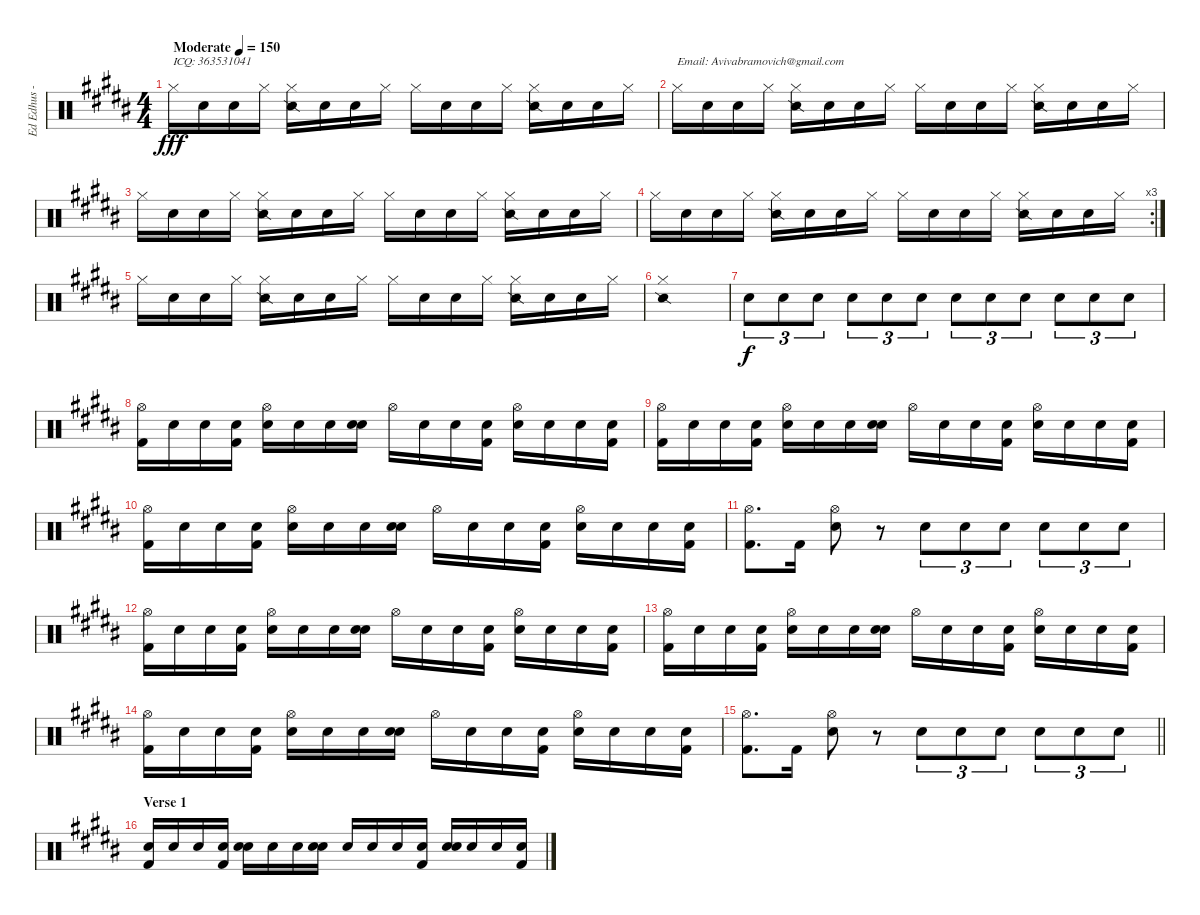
\track ("Ed Edhus - Drums" "Ed Edhus -") {instrument percussion bank 127}
\staff {score}
\articulation defaults
\ts (4 4)
\tempo (150 "Moderate")
\clef neutral
\ks g#minor "Hi-Hat (closed)".16{txt "ICQ: 363531041" dy fff} "Snare (hit)".16 "Snare (hit)".16 "Hi-Hat (closed)".16
("Hi-Hat (closed)" "Snare (side stick) 2").16 "Snare (hit)".16 "Snare (hit)".16 "Hi-Hat (closed)".16 "Hi-Hat (closed)".16 "Snare (hit)".16 "Snare (hit)".16 "Hi-Hat (closed)".16 ("Hi-Hat (closed)" "Snare (side stick) 2").16 "Snare (hit)".16 "Snare (hit)".16 "Hi-Hat (closed)".16 |
"Hi-Hat (closed)".16{txt "Email: Avivabramovich@gmail.com"} "Snare (hit)".16 "Snare (hit)".16 "Hi-Hat (closed)".16 ("Hi-Hat (closed)" "Snare (side stick) 2").16 "Snare (hit)".16 "Snare (hit)".16 "Hi-Hat (closed)".16 "Hi-Hat (closed)".16 "Snare (hit)".16 "Snare (hit)".16 "Hi-Hat (closed)".16 ("Hi-Hat (closed)" "Snare (side stick) 2").16 "Snare (hit)".16 "Snare (hit)".16 "Hi-Hat (closed)".16 |
"Hi-Hat (closed)".16 "Snare (hit)".16 "Snare (hit)".16 "Hi-Hat (closed)".16 ("Hi-Hat (closed)" "Snare (side stick) 2").16 "Snare (hit)".16 "Snare (hit)".16 "Hi-Hat (closed)".16 "Hi-Hat (closed)".16 "Snare (hit)".16 "Snare (hit)".16 "Hi-Hat (closed)".16 ("Hi-Hat (closed)" "Snare (side stick) 2").16 "Snare (hit)".16 "Snare (hit)".16 "Hi-Hat (closed)".16 |
\rc 3 "Hi-Hat (closed)".16 "Snare (hit)".16 "Snare (hit)".16 "Hi-Hat (closed)".16
("Hi-Hat (closed)" "Snare (side stick) 2").16 "Snare (hit)".16 "Snare (hit)".16 "Hi-Hat (closed)".16 "Hi-Hat (closed)".16 "Snare (hit)".16 "Snare (hit)".16 "Hi-Hat (closed)".16 ("Hi-Hat (closed)" "Snare (side stick) 2").16 "Snare (hit)".16 "Snare (hit)".16 "Hi-Hat (closed)".16 |
"Hi-Hat (closed)".16 "Snare (hit)".16 "Snare (hit)".16 "Hi-Hat (closed)".16 ("Hi-Hat (closed)" "Snare (side stick) 2").16 "Snare (hit)".16 "Snare (hit)".16 "Hi-Hat (closed)".16 "Hi-Hat (closed)".16 "Snare (hit)".16 "Snare (hit)".16 "Hi-Hat (closed)".16 ("Hi-Hat (closed)" "Snare (side stick) 2").16 "Snare (hit)".16 "Snare (hit)".16 "Hi-Hat (closed)".16 |
("Hi-Hat (closed)" "Snare (side stick) 2").1 |
"Snare (hit) 2".8{tu (3 2) dy f} "Snare (hit) 2".8{tu (3 2)} "Snare (hit) 2".8{tu (3 2)} "Snare (hit) 2".8{tu (3 2)} "Snare (hit) 2".8{tu (3 2)} "Snare (hit) 2".8{tu (3 2)} "Snare (hit) 2".8{tu (3 2)} "Snare (hit) 2".8{tu (3 2)} "Snare (hit) 2".8{tu (3 2)} "Snare (hit) 2".8{tu (3 2)} "Snare (hit) 2".8{tu (3 2)} "Snare (hit) 2".8{tu (3 2)} |
("Hi-Hat (open)" "Kick (hit) 2").16 "Snare (hit)".16 "Snare (hit)".16 ("Snare (hit)" "Kick (hit) 2").16 ("Hi-Hat (open)" "Snare (hit) 2").16 "Snare (hit)".16 "Snare (hit)".16 ("Snare (hit)" "Snare (hit) 2").16 "Hi-Hat (open)".16 "Snare (hit)".16 "Snare (hit)".16 ("Snare (hit)" "Kick (hit) 2").16 ("Hi-Hat (open)" "Snare (hit) 2").16 "Snare (hit)".16 "Snare (hit)".16 ("Snare (hit)" "Kick (hit) 2").16 |
("Hi-Hat (open)" "Kick (hit) 2").16 "Snare (hit)".16 "Snare (hit)".16 ("Snare (hit)" "Kick (hit) 2").16 ("Hi-Hat (open)" "Snare (hit) 2").16 "Snare (hit)".16 "Snare (hit)".16 ("Snare (hit)" "Snare (hit) 2").16 "Hi-Hat (open)".16 "Snare (hit)".16 "Snare (hit)".16 ("Snare (hit)" "Kick (hit) 2").16 ("Hi-Hat (open)" "Snare (hit) 2").16 "Snare (hit)".16 "Snare (hit)".16 ("Snare (hit)" "Kick (hit) 2").16 |
("Hi-Hat (open)" "Kick (hit) 2").16 "Snare (hit)".16 "Snare (hit)".16 ("Snare (hit)" "Kick (hit) 2").16 ("Hi-Hat (open)" "Snare (hit) 2").16 "Snare (hit)".16 "Snare (hit)".16 ("Snare (hit)" "Snare (hit) 2").16 "Hi-Hat (open)".16 "Snare (hit)".16 "Snare (hit)".16 ("Snare (hit)" "Kick (hit) 2").16 ("Hi-Hat (open)" "Snare (hit) 2").16 "Snare (hit)".16 "Snare (hit)".16 ("Snare (hit)" "Kick (hit) 2").16 |
("Hi-Hat (open)" "Kick (hit) 2").8{d} "Kick (hit) 2".16 ("Hi-Hat (open)" "Snare (hit) 2").8 r.8 "Snare (hit) 2".8{tu (3 2)} "Snare (hit) 2".8{tu (3 2)} "Snare (hit) 2".8{tu (3 2)} "Snare (hit) 2".8{tu (3 2)} "Snare (hit) 2".8{tu (3 2)} "Snare (hit) 2".8{tu (3 2)} |
("Hi-Hat (open)" "Kick (hit) 2").16 "Snare (hit)".16 "Snare (hit)".16 ("Snare (hit)" "Kick (hit) 2").16 ("Hi-Hat (open)" "Snare (hit) 2").16 "Snare (hit)".16 "Snare (hit)".16 ("Snare (hit)" "Snare (hit) 2").16 "Hi-Hat (open)".16 "Snare (hit)".16 "Snare (hit)".16 ("Snare (hit)" "Kick (hit) 2").16 ("Hi-Hat (open)" "Snare (hit) 2").16 "Snare (hit)".16 "Snare (hit)".16 ("Snare (hit)" "Kick (hit) 2").16 |
("Hi-Hat (open)" "Kick (hit) 2").16 "Snare (hit)".16 "Snare (hit)".16 ("Snare (hit)" "Kick (hit) 2").16 ("Hi-Hat (open)" "Snare (hit) 2").16 "Snare (hit)".16 "Snare (hit)".16 ("Snare (hit)" "Snare (hit) 2").16 "Hi-Hat (open)".16 "Snare (hit)".16 "Snare (hit)".16 ("Snare (hit)" "Kick (hit) 2").16 ("Hi-Hat (open)" "Snare (hit) 2").16 "Snare (hit)".16 "Snare (hit)".16 ("Snare (hit)" "Kick (hit) 2").16 |
("Hi-Hat (open)" "Kick (hit) 2").16 "Snare (hit)".16 "Snare (hit)".16 ("Snare (hit)" "Kick (hit) 2").16 ("Hi-Hat (open)" "Snare (hit) 2").16 "Snare (hit)".16 "Snare (hit)".16 ("Snare (hit)" "Snare (hit) 2").16 "Hi-Hat (open)".16 "Snare (hit)".16 "Snare (hit)".16 ("Snare (hit)" "Kick (hit) 2").16 ("Hi-Hat (open)" "Snare (hit) 2").16 "Snare (hit)".16 "Snare (hit)".16 ("Snare (hit)" "Kick (hit) 2").16 |
\barLineRight lightlight
("Hi-Hat (open)" "Kick (hit) 2").8{d} "Kick (hit) 2".16 ("Hi-Hat (open)" "Snare (hit) 2").8 r.8 "Snare (hit) 2".8{tu (3 2)} "Snare (hit) 2".8{tu (3 2)} "Snare (hit) 2".8{tu (3 2)} "Snare (hit) 2".8{tu (3 2)} "Snare (hit) 2".8{tu (3 2)} "Snare (hit) 2".8{tu (3 2)} |
\section ("" "Verse 1")
("Snare (hit)" "Kick (hit) 2").16 "Snare (hit)".16 "Snare (hit)".16 ("Snare (hit)" "Kick (hit) 2").16 ("Snare (hit)" "Snare (hit) 2").16 "Snare (hit)".16 "Snare (hit)".16 ("Snare (hit)" "Snare (hit) 2").16 "Snare (hit)".16 "Snare (hit)".16 "Snare (hit)".16 ("Snare (hit)" "Kick (hit) 2").16 ("Snare (hit)" "Snare (hit) 2").16 "Snare (hit)".16 "Snare (hit)".16 ("Snare (hit)" "Kick (hit) 2").16
